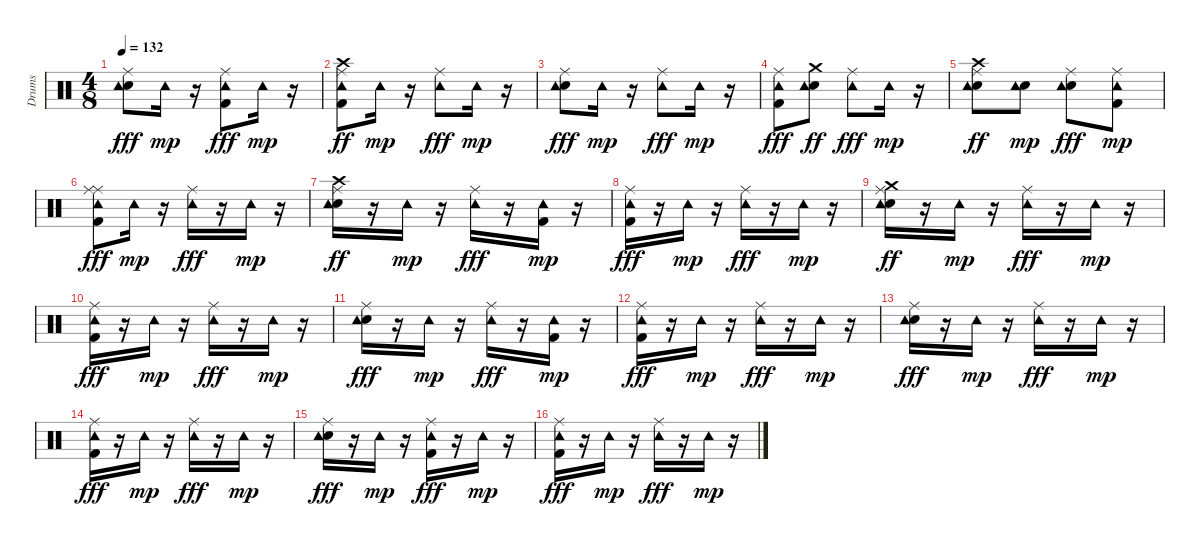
\track ("Drums" "Drums") {instrument percussion}
\staff {score}
\articulation defaults
\ts (4 8)
\tempo 132
\clef neutral
\ks c
("Snare (hit) 2" "Ride (middle)" "Tambourine (hit)").8{dy fff} "Tambourine (hit)".16{dy mp} r.16 ("Kick (hit) 2" "Ride (middle)" "Tambourine (hit)").8{dy fff} "Tambourine (hit)".16{dy mp} r.16 |
("Kick (hit) 2" "Ride (middle)" "Tambourine (hit)" "Crash high (hit)").8{dy ff} "Tambourine (hit)".16{dy mp} r.16 ("Ride (middle)" "Tambourine (hit)").8{dy fff} "Tambourine (hit)".16{dy mp} r.16 |
("Snare (hit) 2" "Ride (middle)" "Tambourine (hit)").8{dy fff} "Tambourine (hit)".16{dy mp} r.16 ("Ride (middle)" "Tambourine (hit)").8{dy fff} "Tambourine (hit)".16{dy mp} r.16 |
("Kick (hit) 2" "Ride (middle)" "Tambourine (hit)").8{dy fff} ("Snare (hit) 2" "Tambourine (hit)" "Crash medium (hit)").8{dy ff} ("Ride (middle)" "Tambourine (hit)").8{dy fff} "Tambourine (hit)".16{dy mp} r.16 |
("Snare (hit) 2" "Ride (middle)" "Tambourine (hit)" "Crash high (hit)").8{dy ff} ("Snare (hit) 2" "Tambourine (hit)").8{dy mp} ("Snare (hit) 2" "Ride (middle)" "Tambourine (hit)").8{dy fff} ("Kick (hit) 2" "Ride (middle)" "Tambourine (hit)").8{dy mp} |
("Kick (hit) 2" "Ride (middle)" "Ride (middle)" "Tambourine (hit)").8{dy fff} "Tambourine (hit)".16{dy mp} r.16 ("Ride (middle)" "Tambourine (hit)").16{dy fff} r.16 "Tambourine (hit)".16{dy mp} r.16 |
("Snare (hit) 2" "Ride (middle)" "Tambourine (hit)" "Crash high (hit)").16{dy ff} r.16 "Tambourine (hit)".16{dy mp} r.16 ("Ride (middle)" "Tambourine (hit)").16{dy fff} r.16 ("Kick (hit) 2" "Tambourine (hit)").16{dy mp} r.16 |
("Kick (hit) 2" "Ride (middle)" "Tambourine (hit)").16{dy fff} r.16 "Tambourine (hit)".16{dy mp} r.16 ("Ride (middle)" "Tambourine (hit)").16{dy fff} r.16 "Tambourine (hit)".16{dy mp} r.16 |
("Snare (hit) 2" "Ride (middle)" "Tambourine (hit)" "Crash medium (hit)").16{dy ff} r.16 "Tambourine (hit)".16{dy mp} r.16 ("Ride (middle)" "Tambourine (hit)").16{dy fff} r.16 "Tambourine (hit)".16{dy mp} r.16 |
("Kick (hit) 2" "Ride (middle)" "Tambourine (hit)").16{dy fff} r.16 "Tambourine (hit)".16{dy mp} r.16 ("Ride (middle)" "Tambourine (hit)").16{dy fff} r.16 "Tambourine (hit)".16{dy mp} r.16 |
("Snare (hit) 2" "Ride (middle)" "Tambourine (hit)").16{dy fff} r.16 "Tambourine (hit)".16{dy mp} r.16 ("Ride (middle)" "Tambourine (hit)").16{dy fff} r.16 ("Kick (hit) 2" "Tambourine (hit)").16{dy mp} r.16 |
("Kick (hit) 2" "Ride (middle)" "Tambourine (hit)").16{dy fff} r.16 "Tambourine (hit)".16{dy mp} r.16 ("Ride (middle)" "Tambourine (hit)").16{dy fff} r.16 "Tambourine (hit)".16{dy mp} r.16 |
("Snare (hit) 2" "Ride (middle)" "Tambourine (hit)").16{dy fff} r.16 "Tambourine (hit)".16{dy mp} r.16 ("Ride (middle)" "Tambourine (hit)").16{dy fff} r.16 "Tambourine (hit)".16{dy mp} r.16 |
("Kick (hit) 2" "Ride (middle)" "Tambourine (hit)").16{dy fff} r.16 "Tambourine (hit)".16{dy mp} r.16 ("Ride (middle)" "Tambourine (hit)").16{dy fff} r.16 "Tambourine (hit)".16{dy mp} r.16 |
("Snare (hit) 2" "Ride (middle)" "Tambourine (hit)").16{dy fff} r.16 "Tambourine (hit)".16{dy mp} r.16 ("Kick (hit) 2" "Ride (middle)" "Tambourine (hit)").16{dy fff} r.16 "Tambourine (hit)".16{dy mp} r.16 |
("Kick (hit) 2" "Ride (middle)" "Tambourine (hit)").16{dy fff} r.16 "Tambourine (hit)".16{dy mp} r.16 ("Ride (middle)" "Tambourine (hit)").16{dy fff} r.16 "Tambourine (hit)".16{dy mp} r.16
